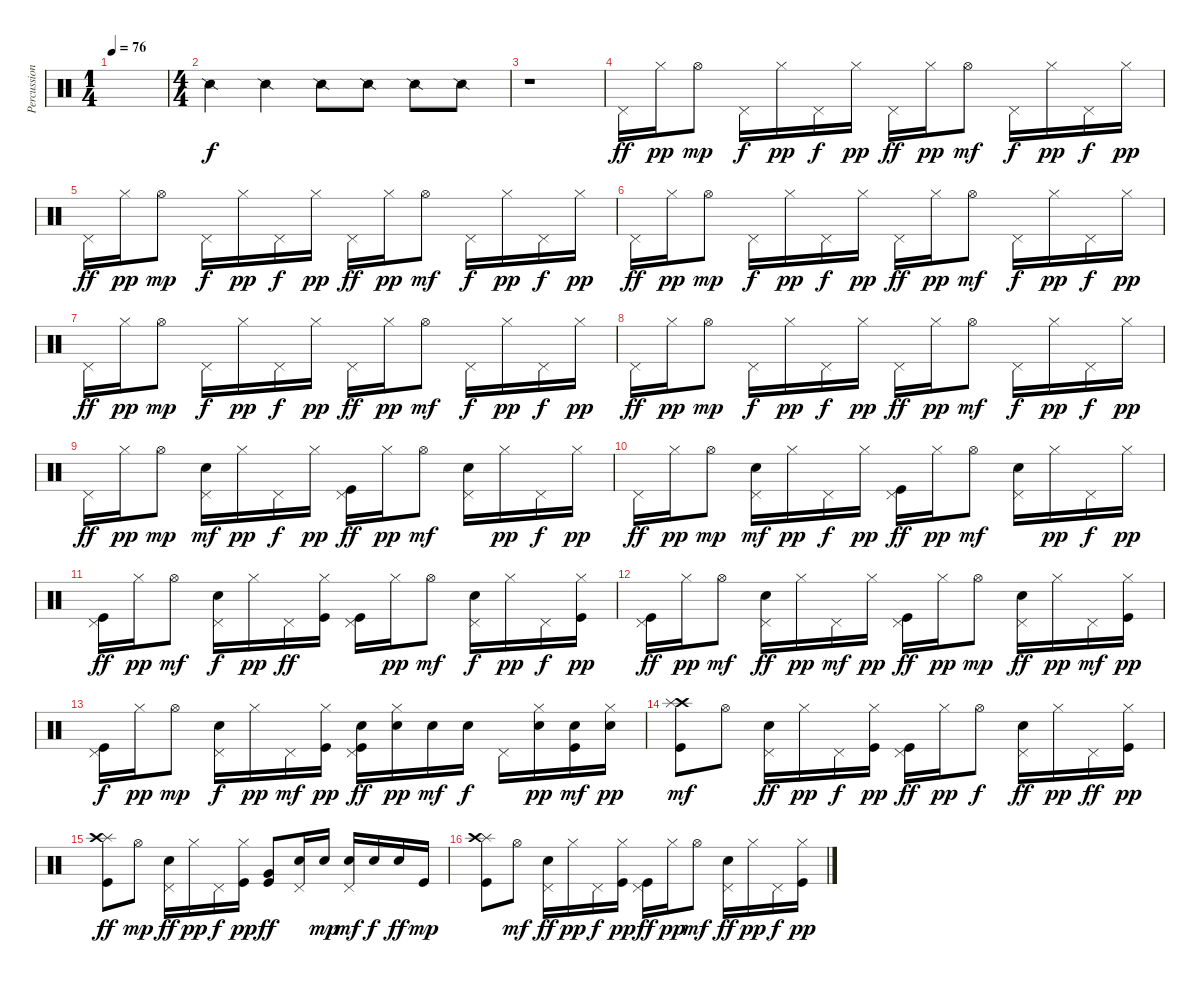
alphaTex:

\track ("Percussion" "Percussion") {instrument percussion}
\staff {score}
\articulation defaults
\ts (1 4)
\tempo 76
\clef neutral
\ks c
|
\ts (4 4)
"Snare (side stick) 2".4 "Snare (side stick) 2".4 "Snare (side stick) 2".8 "Snare (side stick) 2".8 "Snare (side stick) 2".8 "Snare (side stick) 2".8 |
r.1 |
"Pedal Hi-Hat (hit)".16{dy ff} "Hi-Hat (closed)".16{dy pp} "Hi-Hat (open)".8{dy mp} "Pedal Hi-Hat (hit)".16{dy f} "Hi-Hat (closed)".16{dy pp} "Pedal Hi-Hat (hit)".16{dy f} "Hi-Hat (closed)".16{dy pp} "Pedal Hi-Hat (hit)".16{dy ff} "Hi-Hat (closed)".16{dy pp} "Hi-Hat (open)".8{dy mf} "Pedal Hi-Hat (hit)".16{dy f} "Hi-Hat (closed)".16{dy pp} "Pedal Hi-Hat (hit)".16{dy f} "Hi-Hat (closed)".16{dy pp} |
"Pedal Hi-Hat (hit)".16{dy ff} "Hi-Hat (closed)".16{dy pp} "Hi-Hat (open)".8{dy mp} "Pedal Hi-Hat (hit)".16{dy f} "Hi-Hat (closed)".16{dy pp} "Pedal Hi-Hat (hit)".16{dy f} "Hi-Hat (closed)".16{dy pp} "Pedal Hi-Hat (hit)".16{dy ff} "Hi-Hat (closed)".16{dy pp} "Hi-Hat (open)".8{dy mf} "Pedal Hi-Hat (hit)".16{dy f} "Hi-Hat (closed)".16{dy pp} "Pedal Hi-Hat (hit)".16{dy f} "Hi-Hat (closed)".16{dy pp} |
"Pedal Hi-Hat (hit)".16{dy ff} "Hi-Hat (closed)".16{dy pp} "Hi-Hat (open)".8{dy mp} "Pedal Hi-Hat (hit)".16{dy f} "Hi-Hat (closed)".16{dy pp} "Pedal Hi-Hat (hit)".16{dy f} "Hi-Hat (closed)".16{dy pp} "Pedal Hi-Hat (hit)".16{dy ff} "Hi-Hat (closed)".16{dy pp} "Hi-Hat (open)".8{dy mf} "Pedal Hi-Hat (hit)".16{dy f} "Hi-Hat (closed)".16{dy pp} "Pedal Hi-Hat (hit)".16{dy f} "Hi-Hat (closed)".16{dy pp} |
"Pedal Hi-Hat (hit)".16{dy ff} "Hi-Hat (closed)".16{dy pp} "Hi-Hat (open)".8{dy mp} "Pedal Hi-Hat (hit)".16{dy f} "Hi-Hat (closed)".16{dy pp} "Pedal Hi-Hat (hit)".16{dy f} "Hi-Hat (closed)".16{dy pp} "Pedal Hi-Hat (hit)".16{dy ff} "Hi-Hat (closed)".16{dy pp} "Hi-Hat (open)".8{dy mf} "Pedal Hi-Hat (hit)".16{dy f} "Hi-Hat (closed)".16{dy pp} "Pedal Hi-Hat (hit)".16{dy f} "Hi-Hat (closed)".16{dy pp} |
"Pedal Hi-Hat (hit)".16{dy ff} "Hi-Hat (closed)".16{dy pp} "Hi-Hat (open)".8{dy mp} "Pedal Hi-Hat (hit)".16{dy f} "Hi-Hat (closed)".16{dy pp} "Pedal Hi-Hat (hit)".16{dy f} "Hi-Hat (closed)".16{dy pp} "Pedal Hi-Hat (hit)".16{dy ff} "Hi-Hat (closed)".16{dy pp} "Hi-Hat (open)".8{dy mf} "Pedal Hi-Hat (hit)".16{dy f} "Hi-Hat (closed)".16{dy pp} "Pedal Hi-Hat (hit)".16{dy f} "Hi-Hat (closed)".16{dy pp} |
"Pedal Hi-Hat (hit)".16{dy ff} "Hi-Hat (closed)".16{dy pp} "Hi-Hat (open)".8{dy mp} ("Pedal Hi-Hat (hit)" "Snare (hit) 2").16{dy mf} "Hi-Hat (closed)".16{dy pp} "Pedal Hi-Hat (hit)".16{dy f} "Hi-Hat (closed)".16{dy pp} ("Pedal Hi-Hat (hit)" "Kick (hit)").16{dy ff} "Hi-Hat (closed)".16{dy pp} "Hi-Hat (open)".8{dy mf} ("Pedal Hi-Hat (hit)" "Snare (hit) 2").16 "Hi-Hat (closed)".16{dy pp} "Pedal Hi-Hat (hit)".16{dy f} "Hi-Hat (closed)".16{dy pp} |
"Pedal Hi-Hat (hit)".16{dy ff} "Hi-Hat (closed)".16{dy pp} "Hi-Hat (open)".8{dy mp} ("Pedal Hi-Hat (hit)" "Snare (hit) 2").16{dy mf} "Hi-Hat (closed)".16{dy pp} "Pedal Hi-Hat (hit)".16{dy f} "Hi-Hat (closed)".16{dy pp} ("Pedal Hi-Hat (hit)" "Kick (hit)").16{dy ff} "Hi-Hat (closed)".16{dy pp} "Hi-Hat (open)".8{dy mf} ("Pedal Hi-Hat (hit)" "Snare (hit) 2").16 "Hi-Hat (closed)".16{dy pp} "Pedal Hi-Hat (hit)".16{dy f} "Hi-Hat (closed)".16{dy pp} |
("Pedal Hi-Hat (hit)" "Kick (hit)").16{dy ff} "Hi-Hat (closed)".16{dy pp} "Hi-Hat (open)".8{dy mf} ("Pedal Hi-Hat (hit)" "Snare (hit) 2").16{dy f} "Hi-Hat (closed)".16{dy pp} "Pedal Hi-Hat (hit)".16{dy ff} ("Hi-Hat (closed)" "Kick (hit)").16 ("Pedal Hi-Hat (hit)" "Kick (hit)").16 "Hi-Hat (closed)".16{dy pp} "Hi-Hat (open)".8{dy mf} ("Pedal Hi-Hat (hit)" "Snare (hit) 2").16{dy f} "Hi-Hat (closed)".16{dy pp} "Pedal Hi-Hat (hit)".16{dy f} ("Hi-Hat (closed)" "Kick (hit)").16{dy pp} |
("Pedal Hi-Hat (hit)" "Kick (hit)").16{dy ff} "Hi-Hat (closed)".16{dy pp} "Hi-Hat (open)".8{dy mf} ("Pedal Hi-Hat (hit)" "Snare (hit) 2").16{dy ff} "Hi-Hat (closed)".16{dy pp} "Pedal Hi-Hat (hit)".16{dy mf} "Hi-Hat (closed)".16{dy pp} ("Pedal Hi-Hat (hit)" "Kick (hit)").16{dy ff} "Hi-Hat (closed)".16{dy pp} "Hi-Hat (open)".8{dy mp} ("Pedal Hi-Hat (hit)" "Snare (hit) 2").16{dy ff} "Hi-Hat (closed)".16{dy pp} "Pedal Hi-Hat (hit)".16{dy mf} ("Hi-Hat (closed)" "Kick (hit)").16{dy pp} |
("Pedal Hi-Hat (hit)" "Kick (hit)").16{dy f} "Hi-Hat (closed)".16{dy pp} "Hi-Hat (open)".8{dy mp} ("Pedal Hi-Hat (hit)" "Snare (hit) 2").16{dy f} "Hi-Hat (closed)".16{dy pp} "Pedal Hi-Hat (hit)".16{dy mf} ("Hi-Hat (closed)" "Kick (hit)").16{dy pp} ("Pedal Hi-Hat (hit)" "Snare (hit) 2" "Kick (hit)").16{dy ff} ("Hi-Hat (closed)" "Snare (hit) 2").16{dy pp} "Snare (hit) 2".16{dy mf} "Snare (hit) 2".16{dy f} "Pedal Hi-Hat (hit)".16 ("Hi-Hat (closed)" "Snare (hit) 2").16{dy pp} ("Kick (hit)" "Snare (hit) 2").16{dy mf} ("Hi-Hat (closed)" "Snare (hit) 2").16{dy pp} |
("Kick (hit)" "Crash high (hit)" "Splash (hit)").8{dy mf} "Hi-Hat (open)".8 ("Snare (hit) 2" "Pedal Hi-Hat (hit)").16{dy ff} "Hi-Hat (closed)".16{dy pp} "Pedal Hi-Hat (hit)".16{dy f} ("Hi-Hat (closed)" "Kick (hit)").16{dy pp} ("Pedal Hi-Hat (hit)" "Kick (hit)").16{dy ff} "Hi-Hat (closed)".16{dy pp} "Hi-Hat (open)".8{dy f} ("Snare (hit) 2" "Pedal Hi-Hat (hit)").16{dy ff} "Hi-Hat (closed)".16{dy pp} "Pedal Hi-Hat (hit)".16{dy ff} ("Kick (hit)" "Hi-Hat (closed)").16{dy pp} |
("Splash (hit)" "Crash high (hit)" "Kick (hit)").8{dy ff} "Hi-Hat (open)".8{dy mp} ("Pedal Hi-Hat (hit)" "Snare (hit) 2").16{dy ff} "Hi-Hat (closed)".16{dy pp} "Pedal Hi-Hat (hit)".16{dy f} ("Hi-Hat (closed)" "Kick (hit)").16{dy pp} ("Very Low Tom (hit)" "Kick (hit)").8{dy ff} ("Pedal Hi-Hat (hit)" "Snare (hit) 2").16 "Snare (hit) 2".16{dy mp} ("Pedal Hi-Hat (hit)" "Snare (hit) 2").16{dy mf} "Snare (hit) 2".16{dy f} "Snare (hit) 2".16{dy ff} "Kick (hit)".16{dy mp} |
("Splash (hit)" "Crash high (hit)" "Kick (hit)").8 "Hi-Hat (open)".8{dy mf} ("Pedal Hi-Hat (hit)" "Snare (hit) 2").16{dy ff} "Hi-Hat (closed)".16{dy pp} "Pedal Hi-Hat (hit)".16{dy f} ("Hi-Hat (closed)" "Kick (hit)").16{dy pp} ("Pedal Hi-Hat (hit)" "Kick (hit)").16{dy ff} "Hi-Hat (closed)".16{dy pp} "Hi-Hat (open)".8{dy mf} ("Pedal Hi-Hat (hit)" "Snare (hit) 2").16{dy ff} "Hi-Hat (closed)".16{dy pp} "Pedal Hi-Hat (hit)".16{dy f} ("Hi-Hat (closed)" "Kick (hit)").16{dy pp}
